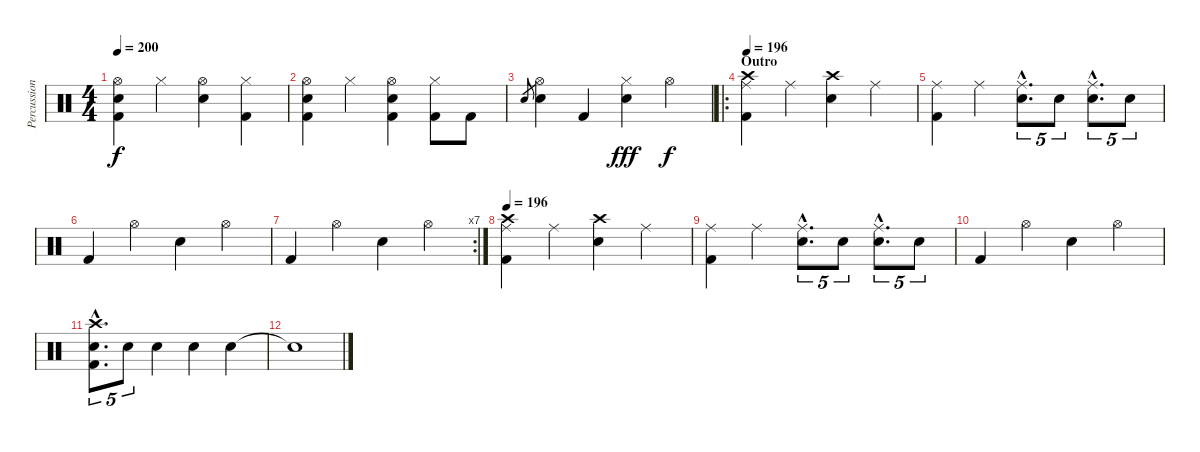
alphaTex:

\track ("Percussion" "Percussion") {instrument percussion}
\staff {score}
\articulation defaults
\ts (4 4)
\tempo 200
\clef neutral
\ks c
("Hi-Hat (open)" "Snare (hit) 2" "Kick (hit) 2").4{dy f} "Hi-Hat (closed)".4 ("Hi-Hat (open)" "Snare (hit) 2").4 ("Hi-Hat (closed)" "Kick (hit) 2").4 |
("Hi-Hat (open)" "Snare (hit) 2" "Kick (hit) 2").4 "Hi-Hat (closed)".4 ("Hi-Hat (open)" "Snare (hit) 2" "Kick (hit) 2").4 ("Hi-Hat (closed)" "Kick (hit) 2").8 "Kick (hit) 2".8 |
"Snare (hit) 2".8{gr} ("Hi-Hat (open)" "Snare (hit) 2").4 "Kick (hit) 2".4 ("Hi-Hat (closed)" "Snare (hit) 2").4{dy fff} "Hi-Hat (open)".4{dy f} |
\ro
\section ("" "Outro")
\tempo 196
("Crash high (hit)" "Ride (middle)" "Kick (hit) 2").4 "Ride (middle)".4 ("Crash high (hit)" "Snare (hit) 2").4 "Ride (middle)".4 |
("Ride (middle)" "Kick (hit) 2").4 "Ride (middle)".4 ("Ride (middle)"{hac} "Snare (hit) 2"{hac}).8{d tu (5 4)} "Snare (hit) 2".8{tu (5 4)} ("Ride (middle)"{hac} "Snare (hit) 2"{hac}).8{d tu (5 4)} "Snare (hit) 2".8{tu (5 4)} |
"Kick (hit) 2".4 "Hi-Hat (open)".4 "Snare (hit) 2".4 "Hi-Hat (open)".4 |
\rc 7 "Kick (hit) 2".4 "Hi-Hat (open)".4 "Snare (hit) 2".4 "Hi-Hat (open)".4
|
\tempo 196
("Crash high (hit)" "Ride (middle)" "Kick (hit) 2").4 "Ride (middle)".4 ("Crash high (hit)" "Snare (hit) 2").4 "Ride (middle)".4 |
("Ride (middle)" "Kick (hit) 2").4 "Ride (middle)".4 ("Ride (middle)"{hac} "Snare (hit) 2"{hac}).8{d tu (5 4)} "Snare (hit) 2".8{tu (5 4)} ("Ride (middle)"{hac} "Snare (hit) 2"{hac}).8{d tu (5 4)} "Snare (hit) 2".8{tu (5 4)} |
"Kick (hit) 2".4 "Hi-Hat (open)".4 "Snare (hit) 2".4 "Hi-Hat (open)".4 |
("Crash high (hit)"{hac} "Snare (hit) 2" "Kick (hit) 2"{hac}).8{d tu (5 4)} "Snare (hit) 2".8{tu (5 4)} "Snare (hit) 2".4 "Snare (hit) 2".4 "Snare (hit) 2".4 |
"Snare (hit)"{t}.1
